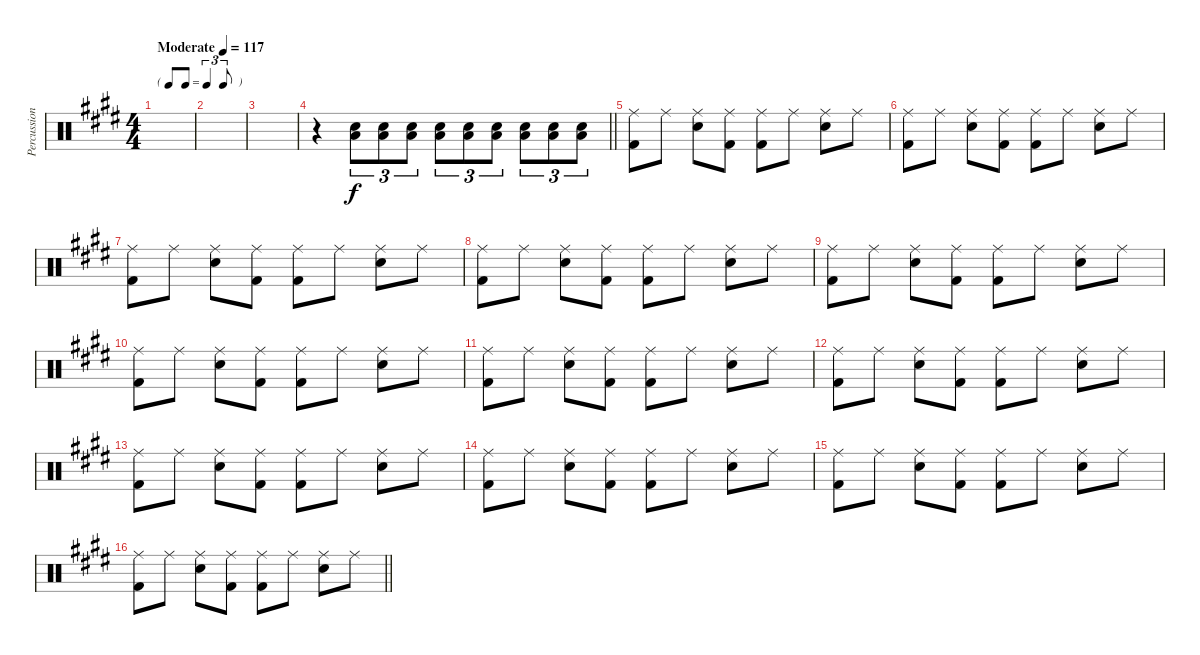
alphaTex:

\track ("Percussion" "Percussion") {instrument percussion}
\staff {score}
\articulation defaults
\ts (4 4)
\tf triplet8th
\tempo (117 "Moderate")
\clef neutral
\ks e
|
|
|
\barLineRight lightlight
r.4 ("Snare (hit) 2" "Low Floor Tom (hit)").8{tu (3 2)} ("Snare (hit) 2" "Low Floor Tom (hit)").8{tu (3 2)} ("Snare (hit) 2" "Low Floor Tom (hit)").8{tu (3 2)} ("Snare (hit) 2" "Low Floor Tom (hit)").8{tu (3 2)} ("Snare (hit) 2" "Low Floor Tom (hit)").8{tu (3 2)} ("Snare (hit) 2" "Low Floor Tom (hit)").8{tu (3 2)} ("Snare (hit) 2" "Low Floor Tom (hit)").8{tu (3 2)} ("Snare (hit) 2" "Low Floor Tom (hit)").8{tu (3 2)} ("Snare (hit) 2" "Low Floor Tom (hit)").8{tu (3 2)} |
("Ride (middle)" "Kick (hit) 2").8 "Ride (middle)".8 ("Ride (middle)" "Snare (hit) 2").8 ("Ride (middle)" "Kick (hit) 2").8 ("Ride (middle)" "Kick (hit) 2").8 "Ride (middle)".8 ("Ride (middle)" "Snare (hit) 2").8 "Ride (middle)".8 |
("Ride (middle)" "Kick (hit) 2").8 "Ride (middle)".8 ("Ride (middle)" "Snare (hit) 2").8 ("Ride (middle)" "Kick (hit) 2").8 ("Ride (middle)" "Kick (hit) 2").8 "Ride (middle)".8 ("Ride (middle)" "Snare (hit) 2").8 "Ride (middle)".8 |
("Ride (middle)" "Kick (hit) 2").8 "Ride (middle)".8 ("Ride (middle)" "Snare (hit) 2").8 ("Ride (middle)" "Kick (hit) 2").8 ("Ride (middle)" "Kick (hit) 2").8 "Ride (middle)".8 ("Ride (middle)" "Snare (hit) 2").8 "Ride (middle)".8 |
("Ride (middle)" "Kick (hit) 2").8 "Ride (middle)".8 ("Ride (middle)" "Snare (hit) 2").8 ("Ride (middle)" "Kick (hit) 2").8 ("Ride (middle)" "Kick (hit) 2").8 "Ride (middle)".8 ("Ride (middle)" "Snare (hit) 2").8 "Ride (middle)".8 |
("Ride (middle)" "Kick (hit) 2").8 "Ride (middle)".8 ("Ride (middle)" "Snare (hit) 2").8 ("Ride (middle)" "Kick (hit) 2").8 ("Ride (middle)" "Kick (hit) 2").8 "Ride (middle)".8 ("Ride (middle)" "Snare (hit) 2").8 "Ride (middle)".8 |
("Ride (middle)" "Kick (hit) 2").8 "Ride (middle)".8 ("Ride (middle)" "Snare (hit) 2").8 ("Ride (middle)" "Kick (hit) 2").8 ("Ride (middle)" "Kick (hit) 2").8 "Ride (middle)".8 ("Ride (middle)" "Snare (hit) 2").8 "Ride (middle)".8 |
("Ride (middle)" "Kick (hit) 2").8 "Ride (middle)".8 ("Ride (middle)" "Snare (hit) 2").8 ("Ride (middle)" "Kick (hit) 2").8 ("Ride (middle)" "Kick (hit) 2").8 "Ride (middle)".8 ("Ride (middle)" "Snare (hit) 2").8 "Ride (middle)".8 |
("Ride (middle)" "Kick (hit) 2").8 "Ride (middle)".8 ("Ride (middle)" "Snare (hit) 2").8 ("Ride (middle)" "Kick (hit) 2").8 ("Ride (middle)" "Kick (hit) 2").8 "Ride (middle)".8 ("Ride (middle)" "Snare (hit) 2").8 "Ride (middle)".8 |
("Ride (middle)" "Kick (hit) 2").8 "Ride (middle)".8 ("Ride (middle)" "Snare (hit) 2").8 ("Ride (middle)" "Kick (hit) 2").8 ("Ride (middle)" "Kick (hit) 2").8 "Ride (middle)".8 ("Ride (middle)" "Snare (hit) 2").8 "Ride (middle)".8 |
("Ride (middle)" "Kick (hit) 2").8 "Ride (middle)".8 ("Ride (middle)" "Snare (hit) 2").8 ("Ride (middle)" "Kick (hit) 2").8 ("Ride (middle)" "Kick (hit) 2").8 "Ride (middle)".8 ("Ride (middle)" "Snare (hit) 2").8 "Ride (middle)".8 |
("Ride (middle)" "Kick (hit) 2").8 "Ride (middle)".8 ("Ride (middle)" "Snare (hit) 2").8 ("Ride (middle)" "Kick (hit) 2").8 ("Ride (middle)" "Kick (hit) 2").8 "Ride (middle)".8 ("Ride (middle)" "Snare (hit) 2").8 "Ride (middle)".8 |
\barLineRight lightlight
("Ride (middle)" "Kick (hit) 2").8 "Ride (middle)".8 ("Ride (middle)" "Snare (hit) 2").8 ("Ride (middle)" "Kick (hit) 2").8 ("Ride (middle)" "Kick (hit) 2").8 "Ride (middle)".8 ("Ride (middle)" "Snare (hit) 2").8 "Ride (middle)".8
